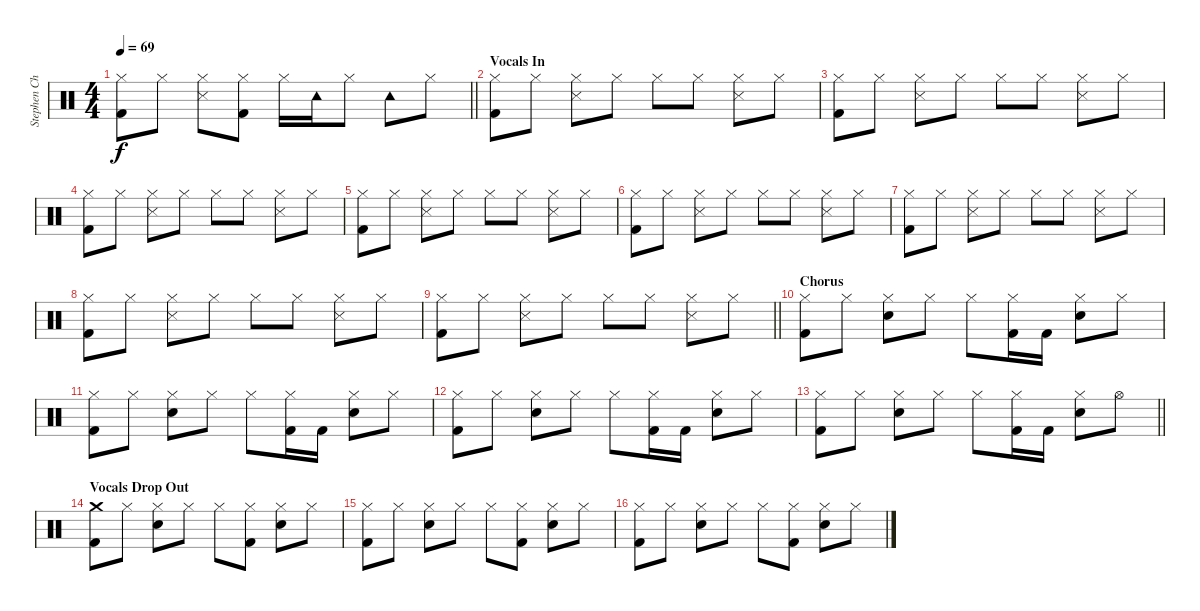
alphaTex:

\track ("Stephen Chopek" "Stephen Ch") {instrument percussion}
\staff {score}
\articulation defaults
\ts (4 4)
\tempo 69
\clef neutral
\barLineRight lightlight
\ks c
("Hi-Hat (closed)" "Kick (hit) 2").8{dy f} "Hi-Hat (closed)".8 ("Hi-Hat (closed)" "Snare (side stick) 3").8 ("Hi-Hat (closed)" "Kick (hit) 2").8 "Hi-Hat (closed)".16 "Tambourine (hit)".16 "Hi-Hat (closed)".8 "Tambourine (hit)".8 "Hi-Hat (closed)".8 |
\section ("" "Vocals In")
("Hi-Hat (closed)" "Kick (hit) 2").8 "Hi-Hat (closed)".8 ("Hi-Hat (closed)" "Snare (side stick) 3").8 "Hi-Hat (closed)".8 "Hi-Hat (closed)".8 "Hi-Hat (closed)".8 ("Hi-Hat (closed)" "Snare (side stick) 3").8 "Hi-Hat (closed)".8 |
("Hi-Hat (closed)" "Kick (hit) 2").8 "Hi-Hat (closed)".8 ("Hi-Hat (closed)" "Snare (side stick) 3").8 "Hi-Hat (closed)".8 "Hi-Hat (closed)".8 "Hi-Hat (closed)".8 ("Hi-Hat (closed)" "Snare (side stick) 3").8 "Hi-Hat (closed)".8 |
("Hi-Hat (closed)" "Kick (hit) 2").8 "Hi-Hat (closed)".8 ("Hi-Hat (closed)" "Snare (side stick) 3").8 "Hi-Hat (closed)".8 "Hi-Hat (closed)".8 "Hi-Hat (closed)".8 ("Hi-Hat (closed)" "Snare (side stick) 3").8 "Hi-Hat (closed)".8 |
("Hi-Hat (closed)" "Kick (hit) 2").8 "Hi-Hat (closed)".8 ("Hi-Hat (closed)" "Snare (side stick) 3").8 "Hi-Hat (closed)".8 "Hi-Hat (closed)".8 "Hi-Hat (closed)".8 ("Hi-Hat (closed)" "Snare (side stick) 3").8 "Hi-Hat (closed)".8 |
("Hi-Hat (closed)" "Kick (hit) 2").8 "Hi-Hat (closed)".8 ("Hi-Hat (closed)" "Snare (side stick) 3").8 "Hi-Hat (closed)".8 "Hi-Hat (closed)".8 "Hi-Hat (closed)".8 ("Hi-Hat (closed)" "Snare (side stick) 3").8 "Hi-Hat (closed)".8 |
("Hi-Hat (closed)" "Kick (hit) 2").8 "Hi-Hat (closed)".8 ("Hi-Hat (closed)" "Snare (side stick) 3").8 "Hi-Hat (closed)".8 "Hi-Hat (closed)".8 "Hi-Hat (closed)".8 ("Hi-Hat (closed)" "Snare (side stick) 3").8 "Hi-Hat (closed)".8 |
("Hi-Hat (closed)" "Kick (hit) 2").8 "Hi-Hat (closed)".8 ("Hi-Hat (closed)" "Snare (side stick) 3").8 "Hi-Hat (closed)".8 "Hi-Hat (closed)".8 "Hi-Hat (closed)".8 ("Hi-Hat (closed)" "Snare (side stick) 3").8 "Hi-Hat (closed)".8 |
\barLineRight lightlight
("Hi-Hat (closed)" "Kick (hit) 2").8 "Hi-Hat (closed)".8 ("Hi-Hat (closed)" "Snare (side stick) 3").8 "Hi-Hat (closed)".8 "Hi-Hat (closed)".8 "Hi-Hat (closed)".8 ("Hi-Hat (closed)" "Snare (side stick) 3").8 "Hi-Hat (closed)".8 |
\section ("" "Chorus")
("Hi-Hat (closed)" "Kick (hit) 2").8{volume 13} "Hi-Hat (closed)".8 ("Hi-Hat (closed)" "Snare (hit) 2").8 "Hi-Hat (closed)".8 "Hi-Hat (closed)".8 ("Hi-Hat (closed)" "Kick (hit) 2").16 "Kick (hit) 2".16 ("Hi-Hat (closed)" "Snare (hit) 2").8 "Hi-Hat (closed)".8 |
("Hi-Hat (closed)" "Kick (hit) 2").8 "Hi-Hat (closed)".8 ("Hi-Hat (closed)" "Snare (hit) 2").8 "Hi-Hat (closed)".8 "Hi-Hat (closed)".8 ("Hi-Hat (closed)" "Kick (hit) 2").16 "Kick (hit) 2".16 ("Hi-Hat (closed)" "Snare (hit) 2").8 "Hi-Hat (closed)".8 |
("Hi-Hat (closed)" "Kick (hit) 2").8 "Hi-Hat (closed)".8 ("Hi-Hat (closed)" "Snare (hit) 2").8 "Hi-Hat (closed)".8 "Hi-Hat (closed)".8 ("Hi-Hat (closed)" "Kick (hit) 2").16 "Kick (hit) 2".16 ("Hi-Hat (closed)" "Snare (hit) 2").8 "Hi-Hat (closed)".8 |
\barLineRight lightlight
("Hi-Hat (closed)" "Kick (hit) 2").8 "Hi-Hat (closed)".8 ("Hi-Hat (closed)" "Snare (hit) 2").8 "Hi-Hat (closed)".8 "Hi-Hat (closed)".8 ("Hi-Hat (closed)" "Kick (hit) 2").16 "Kick (hit) 2".16 ("Hi-Hat (closed)" "Snare (hit) 2").8 "Hi-Hat (open)".8 |
\section ("" "Vocals Drop Out")
("Crash medium (hit)" "Kick (hit) 2").8 "Hi-Hat (closed)".8 ("Hi-Hat (closed)" "Snare (hit) 2").8 "Hi-Hat (closed)".8 "Hi-Hat (closed)".8 ("Hi-Hat (closed)" "Kick (hit) 2").8 ("Hi-Hat (closed)" "Snare (hit) 2").8 "Hi-Hat (closed)".8 |
("Hi-Hat (closed)" "Kick (hit) 2").8 "Hi-Hat (closed)".8 ("Hi-Hat (closed)" "Snare (hit) 2").8 "Hi-Hat (closed)".8 "Hi-Hat (closed)".8 ("Hi-Hat (closed)" "Kick (hit) 2").8 ("Hi-Hat (closed)" "Snare (hit) 2").8 "Hi-Hat (closed)".8 |
("Hi-Hat (closed)" "Kick (hit) 2").8 "Hi-Hat (closed)".8 ("Hi-Hat (closed)" "Snare (hit) 2").8 "Hi-Hat (closed)".8 "Hi-Hat (closed)".8 ("Hi-Hat (closed)" "Kick (hit) 2").8 ("Hi-Hat (closed)" "Snare (hit) 2").8 "Hi-Hat (closed)".8
